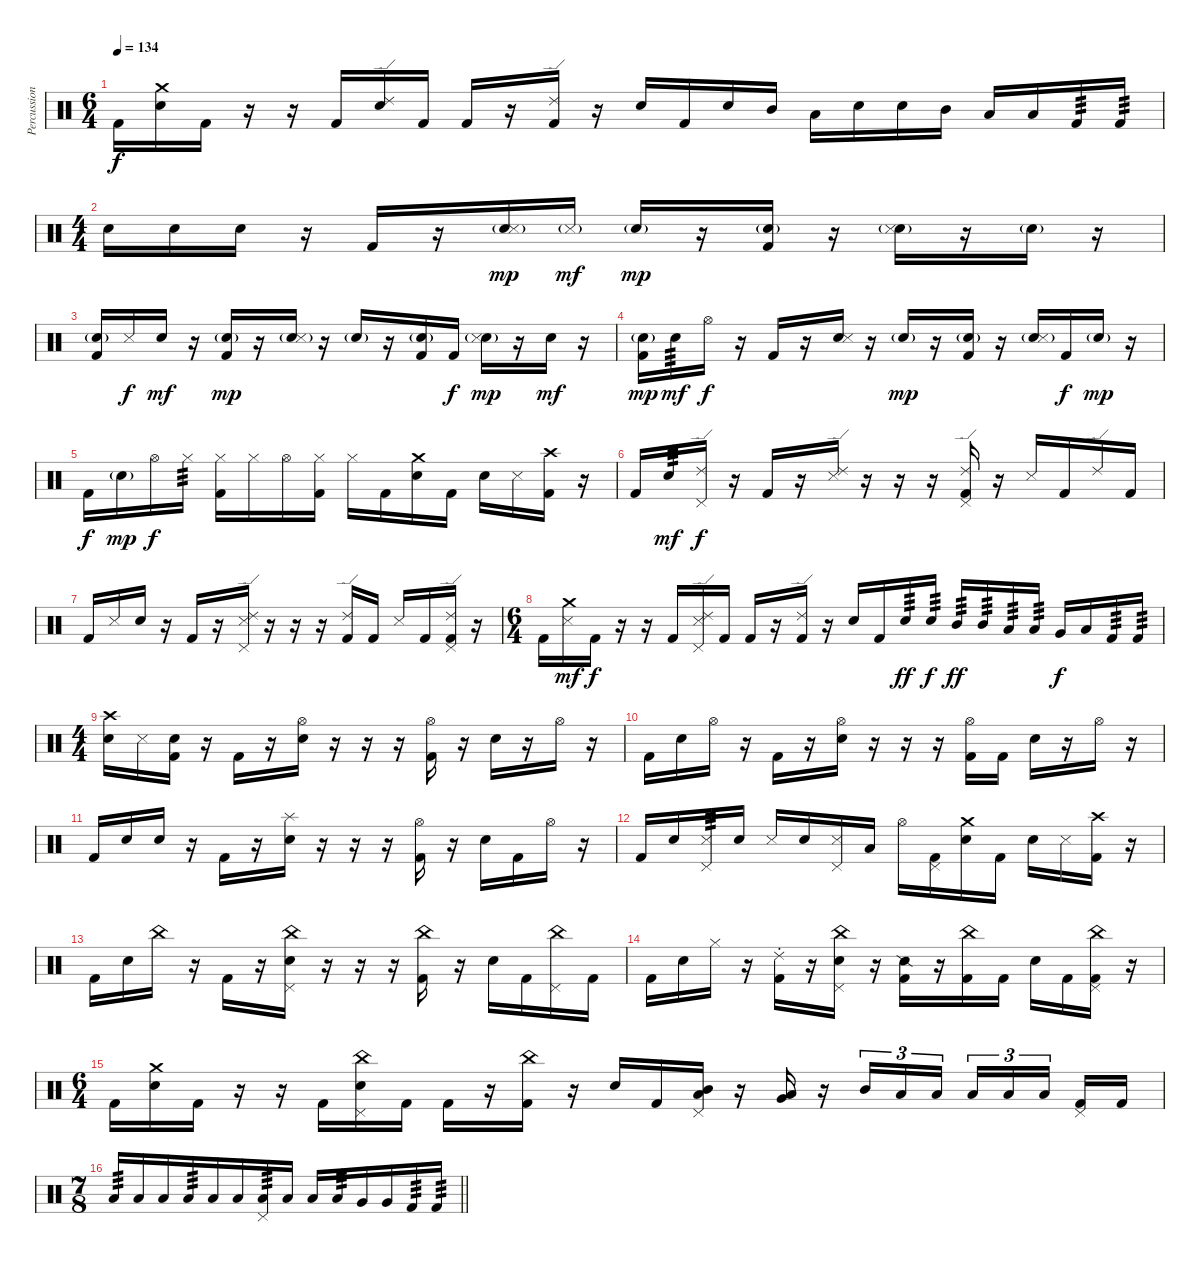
\track ("Percussion" "Percussion") {instrument percussion}
\staff {score}
\articulation defaults
\ts (6 4)
\tempo 134
\clef neutral
\ks c "Kick (hit) 2".16{dy f}
("Crash medium (hit)" "Snare (hit) 2").16 "Kick (hit) 2".16 r.16 r.16 "Kick (hit) 2".16 ("Ride (edge) 2" "Snare (hit) 2").16 "Kick (hit) 2".16 "Kick (hit) 2".16 r.16 ("Ride (edge) 2" "Kick (hit) 2").16 r.16 "Snare (hit) 2".16 "Kick (hit) 2".16 "Snare (hit) 2".16 "Mid Tom (hit)".16 "Low Tom (hit)".16 "Snare (hit) 2".16 "Snare (hit) 2".16 "Mid Tom (hit)".16 "Low Tom (hit)".16 "Low Tom (hit)".16 "Kick (hit) 2".16{tp 3} "Kick (hit) 2".16{tp 3} |
\ts (4 4)
"Electric Snare (hit)".16 "Electric Snare (hit)".16 "Snare (hit)".16 r.16 "Kick (hit) 2".16 r.16 ("Snare (hit)"{g} "Snare (side stick) 3").16{dy mp} "Snare (side stick) 3"{g}.16{dy mf} "Snare (hit)"{g}.16{dy mp} r.16 ("Snare (hit)"{g} "Kick (hit) 2").16 r.16 ("Snare (hit)"{g} "Snare (side stick) 3").16 r.16 "Snare (hit)"{g}.16 r.16 |
("Snare (hit)"{g} "Kick (hit) 2").16 "Snare (side stick) 3".16{dy f} "Snare (hit)".16{dy mf} r.16 ("Snare (hit)"{g} "Kick (hit) 2").16{dy mp} r.16 ("Snare (hit)"{g} "Snare (side stick) 3").16 r.16 "Snare (hit)"{g}.16 r.16 ("Snare (hit)"{g} "Kick (hit) 2").16 "Kick (hit) 2".16{dy f} ("Snare (hit)"{g} "Snare (side stick) 3").16{dy mp} r.16 "Snare (hit)".16{dy mf} r.16 |
("Snare (hit)"{g} "Kick (hit) 2").16{dy mp} "Snare (hit) 2".16{tp 3 dy mf} "Hi-Hat (open)".16{dy f} r.16 "Kick (hit) 2".16 r.16 ("Snare (hit)" "Snare (side stick) 3").16 r.16 "Snare (hit)"{g}.16{dy mp} r.16 ("Snare (hit)"{g} "Kick (hit) 2").16 r.16 ("Snare (hit)"{g} "Snare (side stick) 3").16 "Kick (hit) 2".16{dy f} "Snare (hit)"{g}.16{dy mp} r.16 |
"Kick (hit) 2".16{dy f} "Snare (hit) 2"{g}.16{dy mp} "Hi-Hat (open)".16{dy f} "Hi-Hat (closed)".16{tp 3} ("Hi-Hat (closed)" "Kick (hit) 2").16 "Hi-Hat (closed)".16 "Hi-Hat (open)".16 ("Hi-Hat (closed)" "Kick (hit) 2").16 "Hi-Hat (closed)".16 "Kick (hit) 2".16 ("Crash medium (hit)" "Snare (hit) 2").16 "Kick (hit) 2".16 "Snare (hit) 2".16 "Metronome (hit)".16 ("Crash high (hit)" "Kick (hit) 2").16 r.16 |
"Kick (hit) 2".16 "Snare (hit) 2".16{tp 3 dy mf} ("Ride (edge) 2" "Pedal Hi-Hat (hit)").16{dy f} r.16 "Kick (hit) 2".16 r.16 ("Ride (edge) 2" "Snare (side stick) 3").16 r.16 r.16 r.16 ("Ride (edge) 2" "Pedal Hi-Hat (hit)" "Kick (hit) 2").16 r.16 "Snare (side stick) 3".16 "Kick (hit) 2".16 "Ride (edge) 2".16 "Kick (hit) 2".16 |
"Kick (hit) 2".16 "Snare (side stick) 3".16 "Snare (hit)".16 r.16 "Kick (hit) 2".16 r.16 ("Ride (edge) 2" "Pedal Hi-Hat (hit)" "Snare (side stick) 3").16 r.16 r.16 r.16 ("Ride (edge) 2" "Kick (hit) 2").16 "Kick (hit) 2".16 "Snare (side stick) 3".16 "Kick (hit) 2".16 ("Ride (edge) 2" "Pedal Hi-Hat (hit)" "Kick (hit) 2").16 r.16 |
\ts (6 4)
"Kick (hit) 2".16 ("Crash medium (hit)" "Snare (side stick) 3").16{dy mf} "Kick (hit) 2".16{dy f} r.16 r.16 "Kick (hit) 2".16 ("Ride (edge) 2" "Pedal Hi-Hat (hit)" "Snare (side stick) 3").16 "Kick (hit) 2".16 "Kick (hit) 2".16 r.16 ("Ride (edge) 2" "Kick (hit) 2").16 r.16 "Snare (hit) 2".16 "Kick (hit) 2".16 "Snare (hit) 2".16{tp 3 dy ff} "Snare (hit) 2".16{tp 3 dy f} "Mid Tom (hit)".16{tp 3 dy ff} "Mid Tom (hit)".16{tp 3} "Low Tom (hit)".16{tp 3} "Low Tom (hit)".16{tp 3} "Very Low Tom (hit)".16{dy f} "Low Floor Tom (hit)".16 "Kick (hit) 2".16{tp 3} "Kick (hit) 2".16{tp 3} |
\ts (4 4)
("Crash high (hit)" "Snare (hit) 2").16 "Metronome (hit)".16 ("Snare (hit)" "Kick (hit) 2").16 r.16 "Kick (hit) 2".16 r.16 ("Hi-Hat (open)" "Snare (hit) 2").16 r.16 r.16 r.16 ("Hi-Hat (open)" "Kick (hit) 2").16 r.16 "Snare (hit) 2".16 r.16 "Hi-Hat (open)".16 r.16 |
"Kick (hit) 2".16 "Snare (hit) 2".16 "Hi-Hat (open)".16 r.16 "Kick (hit) 2".16 r.16 ("Hi-Hat (open)" "Snare (hit) 2").16 r.16 r.16 r.16 ("Hi-Hat (open)" "Kick (hit) 2").16 "Kick (hit) 2".16 "Snare (hit) 2".16 r.16 "Hi-Hat (open)".16 r.16 |
"Kick (hit) 2".16 "Snare (hit) 2".16 "Snare (hit)".16 r.16 "Kick (hit) 2".16 r.16 ("Splash (hit)" "Snare (hit) 2").16 r.16 r.16 r.16 ("Hi-Hat (open)" "Kick (hit) 2").16 r.16 "Snare (hit) 2".16 "Kick (hit) 2".16 "Hi-Hat (open)".16 r.16 |
"Kick (hit) 2".16 "Snare (hit) 2".16 ("Pedal Hi-Hat (hit)" "Metronome (hit)").16{tp 3} "Snare (hit) 2".16 "Metronome (hit)".16 "Snare (hit) 2".16 ("Pedal Hi-Hat (hit)" "Metronome (hit)").16 "Low Tom (hit)".16 "Hi-Hat (open)".16 ("Pedal Hi-Hat (hit)" "Kick (hit) 2").16 ("Crash medium (hit)" "Snare (hit) 2").16 "Kick (hit) 2".16 "Snare (hit) 2".16 "Metronome (hit)".16 ("Crash high (hit)" "Kick (hit) 2").16 r.16 |
"Kick (hit) 2".16 "Snare (hit) 2".16 "China (hit)".16 r.16 "Kick (hit) 2".16 r.16 ("China (hit)" "Pedal Hi-Hat (hit)" "Snare (hit) 2").16 r.16 r.16 r.16 ("China (hit)" "Kick (hit) 2").16 r.16 "Snare (hit) 2".16 "Kick (hit) 2".16 ("China (hit)" "Pedal Hi-Hat (hit)").16 "Kick (hit) 2".16 |
"Kick (hit) 2".16 "Snare (hit) 2".16 "Hi-Hat (closed)".16 r.16 ("Ride (choke) 2" "Kick (hit) 2").16 r.16 ("China (hit)" "Pedal Hi-Hat (hit)" "Snare (hit) 2").16 r.16 ("Snare (side stick) 2" "Kick (hit) 2").16 r.16 ("China (hit)" "Kick (hit) 2").16 "Kick (hit) 2".16 "Snare (hit) 2".16 "Kick (hit) 2".16 ("China (hit)" "Pedal Hi-Hat (hit)" "Kick (hit) 2").16 r.16 |
\ts (6 4)
"Kick (hit) 2".16 ("Crash medium (hit)" "Snare (hit) 2").16 "Kick (hit) 2".16 r.16 r.16 "Kick (hit) 2".16 ("China (hit)" "Pedal Hi-Hat (hit)" "Snare (hit) 2").16 "Kick (hit) 2".16 "Kick (hit) 2".16 r.16 ("China (hit)" "Kick (hit) 2").16 r.16 "Snare (hit) 2".16 "Kick (hit) 2".16 ("Pedal Hi-Hat (hit)" "Mid Tom (hit)" "Low Tom (hit)").16 r.16 ("Low Tom (hit)" "Very Low Tom (hit)").16 r.16 "Mid Tom (hit)".16{tu (3 2)} "Low Tom (hit)".16{tu (3 2)} "Low Floor Tom (hit)".16{tu (3 2) beam splitsecondary} "Low Floor Tom (hit)".16{tu (3 2)} "Low Floor Tom (hit)".16{tu (3 2)} "Low Floor Tom (hit)".16{tu (3 2) beam splitsecondary} ("Pedal Hi-Hat (hit)" "Kick (hit) 2").16 "Kick (hit) 2".16 |
\ts (7 8)
\barLineRight lightlight "Low Tom (hit)".16{tp 3} "Low Tom (hit)".16 "Low Tom (hit)".16 "Low Tom (hit)".16{tp 3} "Low Tom (hit)".16 "Low Tom (hit)".16
("Pedal Hi-Hat (hit)" "Low Tom (hit)").16{tp 3} "Low Tom (hit)".16 "Low Tom (hit)".16 "Low Tom (hit)".16{tp 3} "Very Low Tom (hit)".16 "Very Low Tom (hit)".16 "Kick (hit) 2".16{tp 3} "Kick (hit) 2".16{tp 3}
